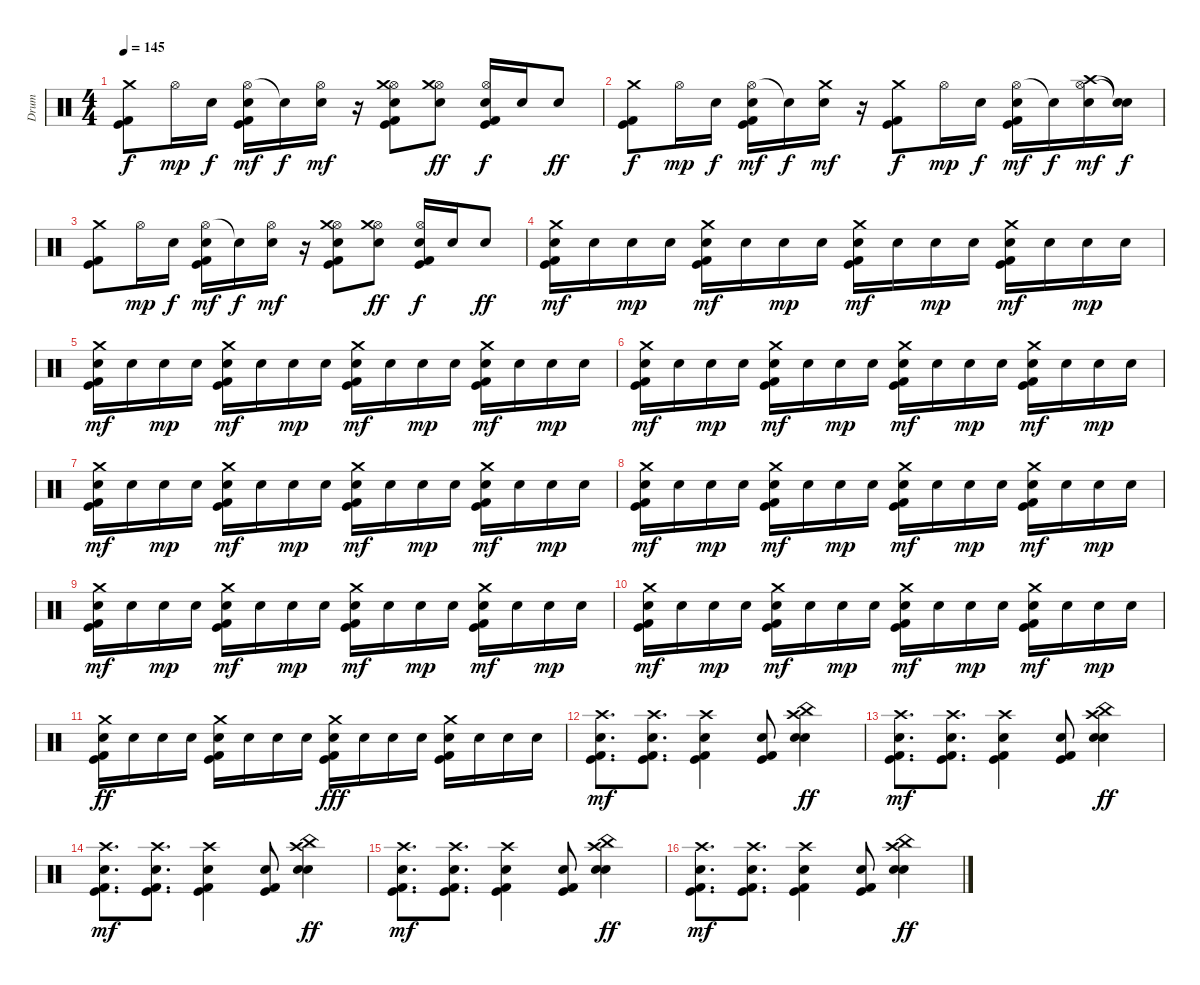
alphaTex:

\track ("Drum" "Drum") {instrument percussion}
\staff {score}
\articulation defaults
\ts (4 4)
\tempo 145
\clef neutral
\ks c
("Crash medium (hit)" "Kick (hit) 2" "Kick (hit)").8{dy f} "Hi-Hat (open)".16{dy mp} "Electric Snare (hit)".16{dy f} ("Hi-Hat (open)" "Electric Snare (hit)" "Kick (hit) 2" "Kick (hit)").16{dy mf} "Snare (hit)"{t}.16{dy f} ("Hi-Hat (open)" "Electric Snare (hit)").16{dy mf} r.16 ("Hi-Hat (open)" "Crash medium (hit)" "Electric Snare (hit)" "Kick (hit) 2" "Kick (hit)").8 ("Hi-Hat (open)" "Crash medium (hit)" "Electric Snare (hit)").8{dy ff} ("Hi-Hat (open)" "Electric Snare (hit)" "Kick (hit) 2" "Kick (hit)").16{dy f} "Electric Snare (hit)".16 "Electric Snare (hit)".8{dy ff} |
("Crash medium (hit)" "Kick (hit) 2" "Kick (hit)").8{dy f} "Hi-Hat (open)".16{dy mp} "Electric Snare (hit)".16{dy f} ("Hi-Hat (open)" "Electric Snare (hit)" "Kick (hit) 2" "Kick (hit)").16{dy mf} "Snare (hit)"{t}.16{dy f} ("Crash medium (hit)" "Electric Snare (hit)").16{dy mf} r.16 ("Crash medium (hit)" "Kick (hit) 2" "Kick (hit)").8{dy f} "Hi-Hat (open)".16{dy mp} "Electric Snare (hit)".16{dy f} ("Hi-Hat (open)" "Electric Snare (hit)" "Kick (hit) 2" "Kick (hit)").16{dy mf} "Snare (hit)"{t}.16{dy f} ("Crash high (hit)" "Hi-Hat (open)" "Electric Snare (hit)").16{dy mf} ("Snare (hit)"{t} "Electric Snare (hit)"{t}).16{dy f} |
("Crash medium (hit)" "Kick (hit) 2" "Kick (hit)").8 "Hi-Hat (open)".16{dy mp} "Electric Snare (hit)".16{dy f} ("Hi-Hat (open)" "Electric Snare (hit)" "Kick (hit) 2" "Kick (hit)").16{dy mf} "Snare (hit)"{t}.16{dy f} ("Hi-Hat (open)" "Electric Snare (hit)").16{dy mf} r.16 ("Hi-Hat (open)" "Crash medium (hit)" "Electric Snare (hit)" "Kick (hit) 2" "Kick (hit)").8 ("Hi-Hat (open)" "Crash medium (hit)" "Electric Snare (hit)").8{dy ff} ("Hi-Hat (open)" "Electric Snare (hit)" "Kick (hit) 2" "Kick (hit)").16{dy f} "Electric Snare (hit)".16 "Electric Snare (hit)".8{dy ff} |
("Crash medium (hit)" "Electric Snare (hit)" "Kick (hit) 2" "Kick (hit)").16{dy mf} "Electric Snare (hit)".16 "Electric Snare (hit)".16{dy mp} "Electric Snare (hit)".16 ("Crash medium (hit)" "Electric Snare (hit)" "Kick (hit) 2" "Kick (hit)").16{dy mf} "Electric Snare (hit)".16 "Electric Snare (hit)".16{dy mp} "Electric Snare (hit)".16 ("Crash medium (hit)" "Electric Snare (hit)" "Kick (hit) 2" "Kick (hit)").16{dy mf} "Electric Snare (hit)".16 "Electric Snare (hit)".16{dy mp} "Electric Snare (hit)".16 ("Crash medium (hit)" "Electric Snare (hit)" "Kick (hit) 2" "Kick (hit)").16{dy mf} "Electric Snare (hit)".16 "Electric Snare (hit)".16{dy mp} "Electric Snare (hit)".16 |
("Crash medium (hit)" "Electric Snare (hit)" "Kick (hit) 2" "Kick (hit)").16{dy mf} "Electric Snare (hit)".16 "Electric Snare (hit)".16{dy mp} "Electric Snare (hit)".16 ("Crash medium (hit)" "Electric Snare (hit)" "Kick (hit) 2" "Kick (hit)").16{dy mf} "Electric Snare (hit)".16 "Electric Snare (hit)".16{dy mp} "Electric Snare (hit)".16 ("Crash medium (hit)" "Electric Snare (hit)" "Kick (hit) 2" "Kick (hit)").16{dy mf} "Electric Snare (hit)".16 "Electric Snare (hit)".16{dy mp} "Electric Snare (hit)".16 ("Crash medium (hit)" "Electric Snare (hit)" "Kick (hit) 2" "Kick (hit)").16{dy mf} "Electric Snare (hit)".16 "Electric Snare (hit)".16{dy mp} "Electric Snare (hit)".16 |
("Crash medium (hit)" "Electric Snare (hit)" "Kick (hit) 2" "Kick (hit)").16{dy mf} "Electric Snare (hit)".16 "Electric Snare (hit)".16{dy mp} "Electric Snare (hit)".16 ("Crash medium (hit)" "Electric Snare (hit)" "Kick (hit) 2" "Kick (hit)").16{dy mf} "Electric Snare (hit)".16 "Electric Snare (hit)".16{dy mp} "Electric Snare (hit)".16 ("Crash medium (hit)" "Electric Snare (hit)" "Kick (hit) 2" "Kick (hit)").16{dy mf} "Electric Snare (hit)".16 "Electric Snare (hit)".16{dy mp} "Electric Snare (hit)".16 ("Crash medium (hit)" "Electric Snare (hit)" "Kick (hit) 2" "Kick (hit)").16{dy mf} "Electric Snare (hit)".16 "Electric Snare (hit)".16{dy mp} "Electric Snare (hit)".16 |
("Crash medium (hit)" "Electric Snare (hit)" "Kick (hit) 2" "Kick (hit)").16{dy mf} "Electric Snare (hit)".16 "Electric Snare (hit)".16{dy mp} "Electric Snare (hit)".16 ("Crash medium (hit)" "Electric Snare (hit)" "Kick (hit) 2" "Kick (hit)").16{dy mf} "Electric Snare (hit)".16 "Electric Snare (hit)".16{dy mp} "Electric Snare (hit)".16 ("Crash medium (hit)" "Electric Snare (hit)" "Kick (hit) 2" "Kick (hit)").16{dy mf} "Electric Snare (hit)".16 "Electric Snare (hit)".16{dy mp} "Electric Snare (hit)".16 ("Crash medium (hit)" "Electric Snare (hit)" "Kick (hit) 2" "Kick (hit)").16{dy mf} "Electric Snare (hit)".16 "Electric Snare (hit)".16{dy mp} "Electric Snare (hit)".16 |
("Crash medium (hit)" "Electric Snare (hit)" "Kick (hit) 2" "Kick (hit)").16{dy mf} "Electric Snare (hit)".16 "Electric Snare (hit)".16{dy mp} "Electric Snare (hit)".16 ("Crash medium (hit)" "Electric Snare (hit)" "Kick (hit) 2" "Kick (hit)").16{dy mf} "Electric Snare (hit)".16 "Electric Snare (hit)".16{dy mp} "Electric Snare (hit)".16 ("Crash medium (hit)" "Electric Snare (hit)" "Kick (hit) 2" "Kick (hit)").16{dy mf} "Electric Snare (hit)".16 "Electric Snare (hit)".16{dy mp} "Electric Snare (hit)".16 ("Crash medium (hit)" "Electric Snare (hit)" "Kick (hit) 2" "Kick (hit)").16{dy mf} "Electric Snare (hit)".16 "Electric Snare (hit)".16{dy mp} "Electric Snare (hit)".16 |
("Crash medium (hit)" "Electric Snare (hit)" "Kick (hit) 2" "Kick (hit)").16{dy mf} "Electric Snare (hit)".16 "Electric Snare (hit)".16{dy mp} "Electric Snare (hit)".16 ("Crash medium (hit)" "Electric Snare (hit)" "Kick (hit) 2" "Kick (hit)").16{dy mf} "Electric Snare (hit)".16 "Electric Snare (hit)".16{dy mp} "Electric Snare (hit)".16 ("Crash medium (hit)" "Electric Snare (hit)" "Kick (hit) 2" "Kick (hit)").16{dy mf} "Electric Snare (hit)".16 "Electric Snare (hit)".16{dy mp} "Electric Snare (hit)".16 ("Crash medium (hit)" "Electric Snare (hit)" "Kick (hit) 2" "Kick (hit)").16{dy mf} "Electric Snare (hit)".16 "Electric Snare (hit)".16{dy mp} "Electric Snare (hit)".16 |
("Crash medium (hit)" "Electric Snare (hit)" "Kick (hit) 2" "Kick (hit)").16{dy mf} "Electric Snare (hit)".16 "Electric Snare (hit)".16{dy mp} "Electric Snare (hit)".16 ("Crash medium (hit)" "Electric Snare (hit)" "Kick (hit) 2" "Kick (hit)").16{dy mf} "Electric Snare (hit)".16 "Electric Snare (hit)".16{dy mp} "Electric Snare (hit)".16 ("Crash medium (hit)" "Electric Snare (hit)" "Kick (hit) 2" "Kick (hit)").16{dy mf} "Electric Snare (hit)".16 "Electric Snare (hit)".16{dy mp} "Electric Snare (hit)".16 ("Crash medium (hit)" "Electric Snare (hit)" "Kick (hit) 2" "Kick (hit)").16{dy mf} "Electric Snare (hit)".16 "Electric Snare (hit)".16{dy mp} "Electric Snare (hit)".16 |
("Crash medium (hit)" "Electric Snare (hit)" "Kick (hit) 2" "Kick (hit)").16{dy ff} "Electric Snare (hit)".16 "Electric Snare (hit)".16 "Electric Snare (hit)".16 ("Crash medium (hit)" "Electric Snare (hit)" "Kick (hit) 2" "Kick (hit)").16 "Electric Snare (hit)".16 "Electric Snare (hit)".16 "Electric Snare (hit)".16 ("Crash medium (hit)" "Electric Snare (hit)" "Kick (hit) 2" "Kick (hit)").16{dy fff} "Electric Snare (hit)".16 "Electric Snare (hit)".16 "Electric Snare (hit)".16 ("Crash medium (hit)" "Electric Snare (hit)" "Kick (hit) 2" "Kick (hit)").16 "Electric Snare (hit)".16 "Electric Snare (hit)".16 "Electric Snare (hit)".16 |
("Crash high (hit)" "Electric Snare (hit)" "Kick (hit) 2" "Kick (hit)").8{d dy mf} ("Crash high (hit)" "Electric Snare (hit)" "Kick (hit) 2" "Kick (hit)").8{d} ("Crash high (hit)" "Electric Snare (hit)" "Kick (hit) 2" "Kick (hit)").4 ("Electric Snare (hit)" "Kick (hit) 2" "Kick (hit)").8 ("Snare (hit) 2" "Electric Snare (hit)" "China (hit)" "Crash high (hit)").4{dy ff} |
("Crash high (hit)" "Electric Snare (hit)" "Kick (hit) 2" "Kick (hit)").8{d dy mf} ("Crash high (hit)" "Electric Snare (hit)" "Kick (hit) 2" "Kick (hit)").8{d} ("Crash high (hit)" "Electric Snare (hit)" "Kick (hit) 2" "Kick (hit)").4 ("Electric Snare (hit)" "Kick (hit) 2" "Kick (hit)").8 ("Snare (hit) 2" "Electric Snare (hit)" "China (hit)" "Crash high (hit)").4{dy ff} |
("Crash high (hit)" "Electric Snare (hit)" "Kick (hit) 2" "Kick (hit)").8{d dy mf} ("Crash high (hit)" "Electric Snare (hit)" "Kick (hit) 2" "Kick (hit)").8{d} ("Crash high (hit)" "Electric Snare (hit)" "Kick (hit) 2" "Kick (hit)").4 ("Electric Snare (hit)" "Kick (hit) 2" "Kick (hit)").8 ("Snare (hit) 2" "Electric Snare (hit)" "China (hit)" "Crash high (hit)").4{dy ff} |
("Crash high (hit)" "Electric Snare (hit)" "Kick (hit) 2" "Kick (hit)").8{d dy mf} ("Crash high (hit)" "Electric Snare (hit)" "Kick (hit) 2" "Kick (hit)").8{d} ("Crash high (hit)" "Electric Snare (hit)" "Kick (hit) 2" "Kick (hit)").4 ("Electric Snare (hit)" "Kick (hit) 2" "Kick (hit)").8 ("Snare (hit) 2" "Electric Snare (hit)" "China (hit)" "Crash high (hit)").4{dy ff} |
("Crash high (hit)" "Electric Snare (hit)" "Kick (hit) 2" "Kick (hit)").8{d dy mf} ("Crash high (hit)" "Electric Snare (hit)" "Kick (hit) 2" "Kick (hit)").8{d} ("Crash high (hit)" "Electric Snare (hit)" "Kick (hit) 2" "Kick (hit)").4 ("Electric Snare (hit)" "Kick (hit) 2" "Kick (hit)").8 ("Snare (hit) 2" "Electric Snare (hit)" "China (hit)" "Crash high (hit)").4{dy ff}
